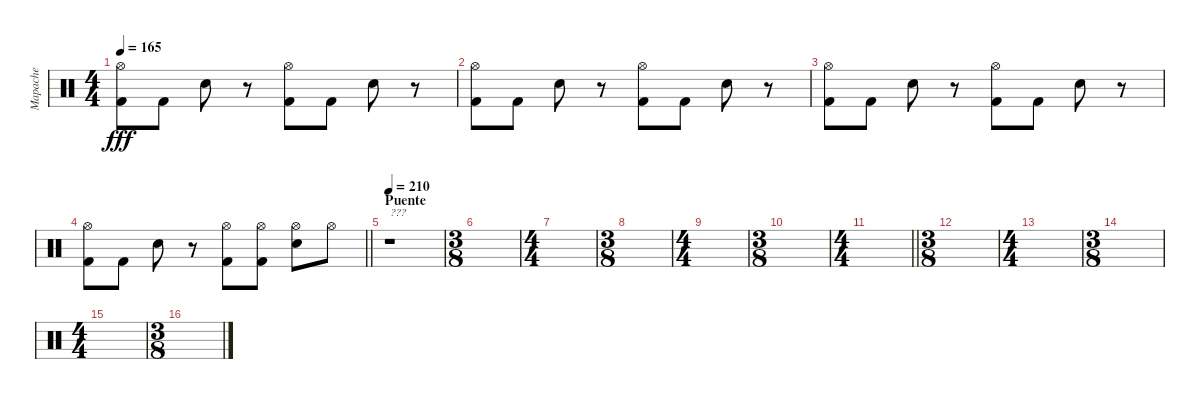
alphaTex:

\track ("Mapache" "Mapache") {instrument percussion}
\staff
\articulation defaults
\ts (4 4)
\tempo 165
\clef neutral
\ks c
("Hi-Hat (open)" "Kick (hit) 2").8{dy fff} "Kick (hit) 2".8 "Electric Snare (hit)".8 r.8 ("Hi-Hat (open)" "Kick (hit) 2").8 "Kick (hit) 2".8 "Electric Snare (hit)".8 r.8 |
("Hi-Hat (open)" "Kick (hit) 2").8 "Kick (hit) 2".8 "Electric Snare (hit)".8 r.8 ("Hi-Hat (open)" "Kick (hit) 2").8 "Kick (hit) 2".8 "Electric Snare (hit)".8 r.8 |
("Hi-Hat (open)" "Kick (hit) 2").8 "Kick (hit) 2".8 "Electric Snare (hit)".8 r.8 ("Hi-Hat (open)" "Kick (hit) 2").8 "Kick (hit) 2".8 "Electric Snare (hit)".8 r.8 |
\barLineRight lightlight
("Hi-Hat (open)" "Kick (hit) 2").8 "Kick (hit) 2".8 "Electric Snare (hit)".8 r.8 ("Hi-Hat (open)" "Kick (hit) 2").8 ("Hi-Hat (open)" "Kick (hit) 2").8 ("Hi-Hat (open)" "Electric Snare (hit)").8 "Hi-Hat (open)".8 |
\section ("" "Puente")
\tempo 210
r.1{txt "???"} |
\ts (3 8)
|
\ts (4 4)
|
\ts (3 8)
|
\ts (4 4)
|
\ts (3 8)
|
\ts (4 4)
\barLineRight lightlight
|
\ts (3 8)
|
\ts (4 4)
|
\ts (3 8)
|
\ts (4 4)
|
\ts (3 8)
